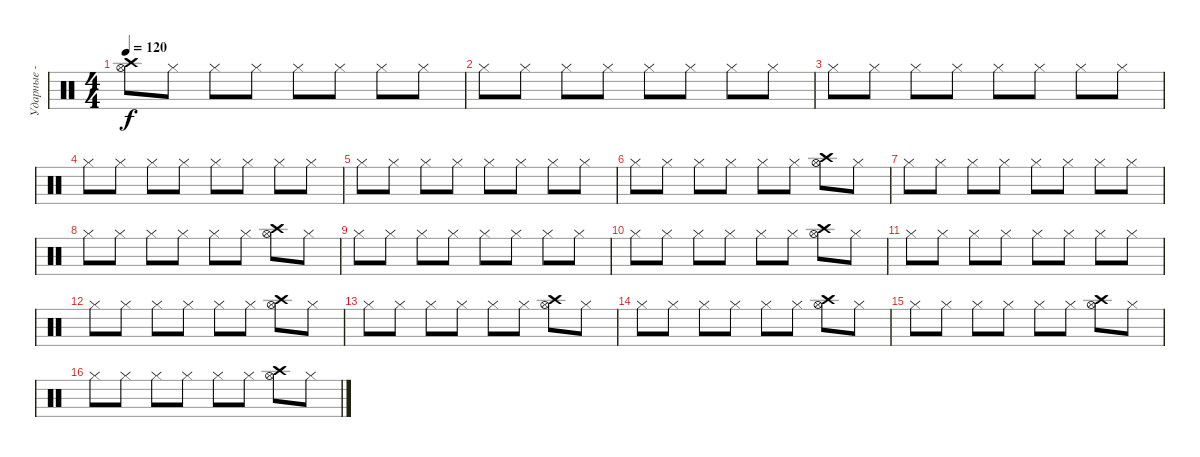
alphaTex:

\track ("Ударные - 2" "Ударные - ") {instrument percussion}
\staff {score}
\articulation defaults
\ts (4 4)
\tempo 120
\clef neutral
\ks c
("Crash high (hit)" "Hi-Hat (open)").8{dy f} "Hi-Hat (closed)".8 "Hi-Hat (closed)".8 "Hi-Hat (closed)".8 "Hi-Hat (closed)".8 "Hi-Hat (closed)".8 "Hi-Hat (closed)".8 "Hi-Hat (closed)".8 |
"Hi-Hat (closed)".8 "Hi-Hat (closed)".8 "Hi-Hat (closed)".8 "Hi-Hat (closed)".8 "Hi-Hat (closed)".8 "Hi-Hat (closed)".8 "Hi-Hat (closed)".8 "Hi-Hat (closed)".8 |
"Hi-Hat (closed)".8 "Hi-Hat (closed)".8 "Hi-Hat (closed)".8 "Hi-Hat (closed)".8 "Hi-Hat (closed)".8 "Hi-Hat (closed)".8 "Hi-Hat (closed)".8 "Hi-Hat (closed)".8 |
"Hi-Hat (closed)".8 "Hi-Hat (closed)".8 "Hi-Hat (closed)".8 "Hi-Hat (closed)".8 "Hi-Hat (closed)".8 "Hi-Hat (closed)".8 "Hi-Hat (closed)".8 "Hi-Hat (closed)".8 |
"Hi-Hat (closed)".8 "Hi-Hat (closed)".8 "Hi-Hat (closed)".8 "Hi-Hat (closed)".8 "Hi-Hat (closed)".8 "Hi-Hat (closed)".8 "Hi-Hat (closed)".8 "Hi-Hat (closed)".8 |
"Hi-Hat (closed)".8 "Hi-Hat (closed)".8 "Hi-Hat (closed)".8 "Hi-Hat (closed)".8 "Hi-Hat (closed)".8 "Hi-Hat (closed)".8 ("Hi-Hat (open)" "Crash high (hit)").8 "Hi-Hat (closed)".8 |
"Hi-Hat (closed)".8 "Hi-Hat (closed)".8 "Hi-Hat (closed)".8 "Hi-Hat (closed)".8 "Hi-Hat (closed)".8 "Hi-Hat (closed)".8 "Hi-Hat (closed)".8 "Hi-Hat (closed)".8 |
"Hi-Hat (closed)".8 "Hi-Hat (closed)".8 "Hi-Hat (closed)".8 "Hi-Hat (closed)".8 "Hi-Hat (closed)".8 "Hi-Hat (closed)".8 ("Hi-Hat (open)" "Crash high (hit)").8 "Hi-Hat (closed)".8 |
"Hi-Hat (closed)".8 "Hi-Hat (closed)".8 "Hi-Hat (closed)".8 "Hi-Hat (closed)".8 "Hi-Hat (closed)".8 "Hi-Hat (closed)".8 "Hi-Hat (closed)".8 "Hi-Hat (closed)".8 |
"Hi-Hat (closed)".8 "Hi-Hat (closed)".8 "Hi-Hat (closed)".8 "Hi-Hat (closed)".8 "Hi-Hat (closed)".8 "Hi-Hat (closed)".8 ("Hi-Hat (open)" "Crash high (hit)").8 "Hi-Hat (closed)".8 |
"Hi-Hat (closed)".8 "Hi-Hat (closed)".8 "Hi-Hat (closed)".8 "Hi-Hat (closed)".8 "Hi-Hat (closed)".8 "Hi-Hat (closed)".8 "Hi-Hat (closed)".8 "Hi-Hat (closed)".8 |
"Hi-Hat (closed)".8 "Hi-Hat (closed)".8 "Hi-Hat (closed)".8 "Hi-Hat (closed)".8 "Hi-Hat (closed)".8 "Hi-Hat (closed)".8 ("Hi-Hat (open)" "Crash high (hit)").8 "Hi-Hat (closed)".8 |
"Hi-Hat (closed)".8 "Hi-Hat (closed)".8 "Hi-Hat (closed)".8 "Hi-Hat (closed)".8 "Hi-Hat (closed)".8 "Hi-Hat (closed)".8 ("Hi-Hat (open)" "Crash high (hit)").8 "Hi-Hat (closed)".8 |
"Hi-Hat (closed)".8 "Hi-Hat (closed)".8 "Hi-Hat (closed)".8 "Hi-Hat (closed)".8 "Hi-Hat (closed)".8 "Hi-Hat (closed)".8 ("Hi-Hat (open)" "Crash high (hit)").8 "Hi-Hat (closed)".8 |
"Hi-Hat (closed)".8 "Hi-Hat (closed)".8 "Hi-Hat (closed)".8 "Hi-Hat (closed)".8 "Hi-Hat (closed)".8 "Hi-Hat (closed)".8 ("Hi-Hat (open)" "Crash high (hit)").8 "Hi-Hat (closed)".8 |
"Hi-Hat (closed)".8 "Hi-Hat (closed)".8 "Hi-Hat (closed)".8 "Hi-Hat (closed)".8 "Hi-Hat (closed)".8 "Hi-Hat (closed)".8 ("Hi-Hat (open)" "Crash high (hit)").8 "Hi-Hat (closed)".8
